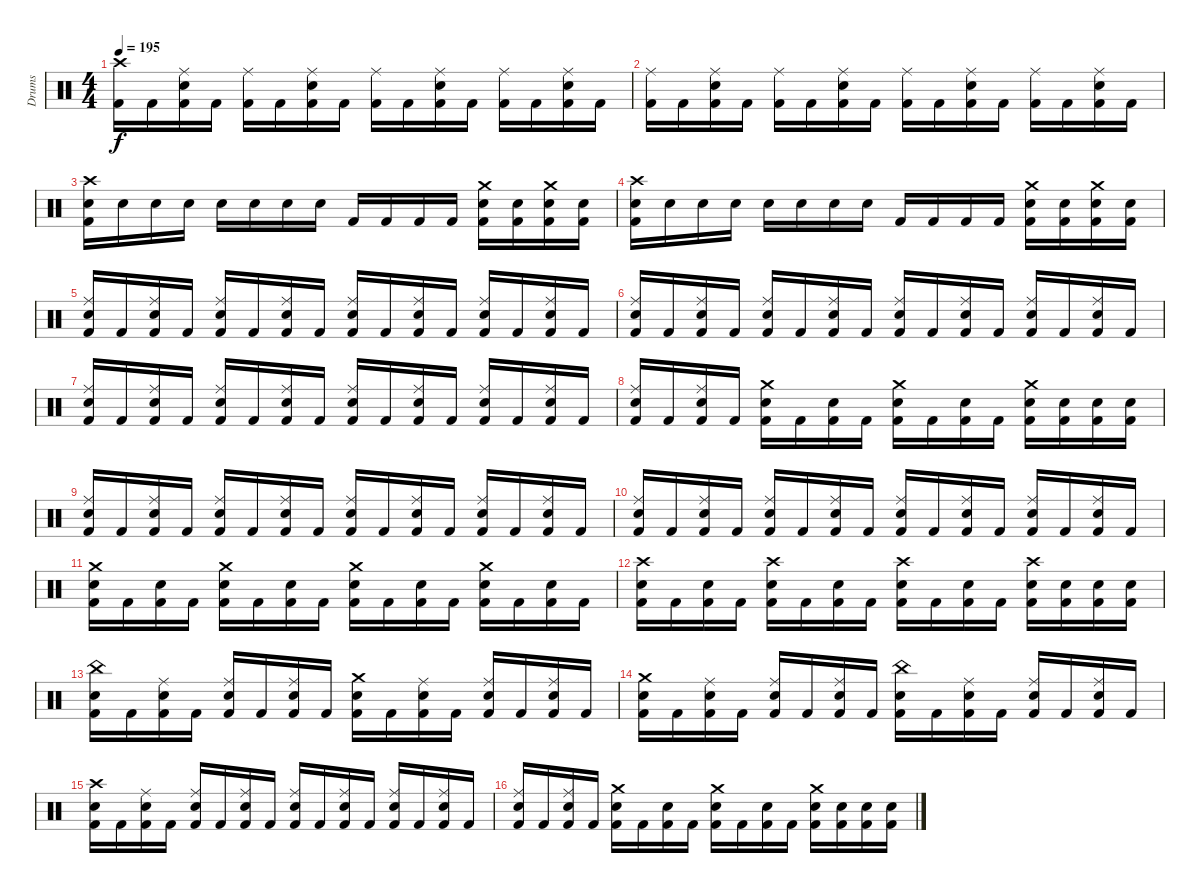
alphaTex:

\track ("Drums" "Drums") {instrument percussion}
\staff {score}
\articulation defaults
\ts (4 4)
\tempo 195
\clef neutral
\ks c
("Crash high (hit)" "Kick (hit) 2").16{dy f} "Kick (hit) 2".16 ("Ride (middle)" "Kick (hit) 2" "Electric Snare (hit)").16 "Kick (hit) 2".16 ("Ride (middle)" "Kick (hit) 2").16 "Kick (hit) 2".16 ("Ride (middle)" "Kick (hit) 2" "Electric Snare (hit)").16 "Kick (hit) 2".16 ("Ride (middle)" "Kick (hit) 2").16 "Kick (hit) 2".16 ("Ride (middle)" "Kick (hit) 2" "Electric Snare (hit)").16 "Kick (hit) 2".16 ("Ride (middle)" "Kick (hit) 2").16 "Kick (hit) 2".16 ("Ride (middle)" "Kick (hit) 2" "Electric Snare (hit)").16 "Kick (hit) 2".16 |
("Ride (middle)" "Kick (hit) 2").16 "Kick (hit) 2".16 ("Ride (middle)" "Kick (hit) 2" "Electric Snare (hit)").16 "Kick (hit) 2".16 ("Ride (middle)" "Kick (hit) 2").16 "Kick (hit) 2".16 ("Ride (middle)" "Kick (hit) 2" "Electric Snare (hit)").16 "Kick (hit) 2".16 ("Ride (middle)" "Kick (hit) 2").16 "Kick (hit) 2".16 ("Ride (middle)" "Kick (hit) 2" "Electric Snare (hit)").16 "Kick (hit) 2".16 ("Ride (middle)" "Kick (hit) 2").16 "Kick (hit) 2".16 ("Ride (middle)" "Kick (hit) 2" "Electric Snare (hit)").16 "Kick (hit) 2".16 |
("Crash high (hit)" "Electric Snare (hit)" "Kick (hit) 2").16 "Electric Snare (hit)".16 "Electric Snare (hit)".16 "Electric Snare (hit)".16 "Electric Snare (hit)".16 "Electric Snare (hit)".16 "Electric Snare (hit)".16 "Electric Snare (hit)".16 "Kick (hit) 2".16 "Kick (hit) 2".16 "Kick (hit) 2".16 "Kick (hit) 2".16 ("Electric Snare (hit)" "Crash medium (hit)" "Kick (hit) 2").16 ("Electric Snare (hit)" "Kick (hit) 2").16 ("Electric Snare (hit)" "Crash medium (hit)" "Kick (hit) 2").16 ("Electric Snare (hit)" "Kick (hit) 2").16 |
("Crash high (hit)" "Electric Snare (hit)" "Kick (hit) 2").16 "Electric Snare (hit)".16 "Electric Snare (hit)".16 "Electric Snare (hit)".16 "Electric Snare (hit)".16 "Electric Snare (hit)".16 "Electric Snare (hit)".16 "Electric Snare (hit)".16 "Kick (hit) 2".16 "Kick (hit) 2".16 "Kick (hit) 2".16 "Kick (hit) 2".16 ("Electric Snare (hit)" "Crash medium (hit)" "Kick (hit) 2").16 ("Electric Snare (hit)" "Kick (hit) 2").16 ("Electric Snare (hit)" "Crash medium (hit)" "Kick (hit) 2").16 ("Electric Snare (hit)" "Kick (hit) 2").16 |
("Ride (middle)" "Kick (hit) 2" "Electric Snare (hit)").16 "Kick (hit) 2".16 ("Ride (middle)" "Kick (hit) 2" "Electric Snare (hit)").16 "Kick (hit) 2".16 ("Ride (middle)" "Kick (hit) 2" "Electric Snare (hit)").16 "Kick (hit) 2".16 ("Ride (middle)" "Kick (hit) 2" "Electric Snare (hit)").16 "Kick (hit) 2".16 ("Ride (middle)" "Kick (hit) 2" "Electric Snare (hit)").16 "Kick (hit) 2".16 ("Ride (middle)" "Kick (hit) 2" "Electric Snare (hit)").16 "Kick (hit) 2".16 ("Ride (middle)" "Kick (hit) 2" "Electric Snare (hit)").16 "Kick (hit) 2".16 ("Ride (middle)" "Kick (hit) 2" "Electric Snare (hit)").16 "Kick (hit) 2".16 |
("Ride (middle)" "Kick (hit) 2" "Electric Snare (hit)").16 "Kick (hit) 2".16 ("Ride (middle)" "Kick (hit) 2" "Electric Snare (hit)").16 "Kick (hit) 2".16 ("Ride (middle)" "Kick (hit) 2" "Electric Snare (hit)").16 "Kick (hit) 2".16 ("Ride (middle)" "Kick (hit) 2" "Electric Snare (hit)").16 "Kick (hit) 2".16 ("Ride (middle)" "Kick (hit) 2" "Electric Snare (hit)").16 "Kick (hit) 2".16 ("Ride (middle)" "Kick (hit) 2" "Electric Snare (hit)").16 "Kick (hit) 2".16 ("Ride (middle)" "Kick (hit) 2" "Electric Snare (hit)").16 "Kick (hit) 2".16 ("Ride (middle)" "Kick (hit) 2" "Electric Snare (hit)").16 "Kick (hit) 2".16 |
("Ride (middle)" "Kick (hit) 2" "Electric Snare (hit)").16 "Kick (hit) 2".16 ("Ride (middle)" "Kick (hit) 2" "Electric Snare (hit)").16 "Kick (hit) 2".16 ("Ride (middle)" "Kick (hit) 2" "Electric Snare (hit)").16 "Kick (hit) 2".16 ("Ride (middle)" "Kick (hit) 2" "Electric Snare (hit)").16 "Kick (hit) 2".16 ("Ride (middle)" "Kick (hit) 2" "Electric Snare (hit)").16 "Kick (hit) 2".16 ("Ride (middle)" "Kick (hit) 2" "Electric Snare (hit)").16 "Kick (hit) 2".16 ("Ride (middle)" "Kick (hit) 2" "Electric Snare (hit)").16 "Kick (hit) 2".16 ("Ride (middle)" "Kick (hit) 2" "Electric Snare (hit)").16 "Kick (hit) 2".16 |
("Ride (middle)" "Kick (hit) 2" "Electric Snare (hit)").16 "Kick (hit) 2".16 ("Ride (middle)" "Kick (hit) 2" "Electric Snare (hit)").16 "Kick (hit) 2".16 ("Crash medium (hit)" "Kick (hit) 2" "Electric Snare (hit)").16 "Kick (hit) 2".16 ("Kick (hit) 2" "Electric Snare (hit)").16 "Kick (hit) 2".16 ("Crash medium (hit)" "Kick (hit) 2" "Electric Snare (hit)").16 "Kick (hit) 2".16 ("Kick (hit) 2" "Electric Snare (hit)").16 "Kick (hit) 2".16 ("Crash medium (hit)" "Kick (hit) 2" "Electric Snare (hit)").16 ("Kick (hit) 2" "Electric Snare (hit)").16 ("Kick (hit) 2" "Electric Snare (hit)").16 ("Kick (hit) 2" "Electric Snare (hit)").16 |
("Ride (middle)" "Kick (hit) 2" "Electric Snare (hit)").16 "Kick (hit) 2".16 ("Ride (middle)" "Kick (hit) 2" "Electric Snare (hit)").16 "Kick (hit) 2".16 ("Ride (middle)" "Kick (hit) 2" "Electric Snare (hit)").16 "Kick (hit) 2".16 ("Ride (middle)" "Kick (hit) 2" "Electric Snare (hit)").16 "Kick (hit) 2".16 ("Ride (middle)" "Kick (hit) 2" "Electric Snare (hit)").16 "Kick (hit) 2".16 ("Ride (middle)" "Kick (hit) 2" "Electric Snare (hit)").16 "Kick (hit) 2".16 ("Ride (middle)" "Kick (hit) 2" "Electric Snare (hit)").16 "Kick (hit) 2".16 ("Ride (middle)" "Kick (hit) 2" "Electric Snare (hit)").16 "Kick (hit) 2".16 |
("Ride (middle)" "Kick (hit) 2" "Electric Snare (hit)").16 "Kick (hit) 2".16 ("Ride (middle)" "Kick (hit) 2" "Electric Snare (hit)").16 "Kick (hit) 2".16 ("Ride (middle)" "Kick (hit) 2" "Electric Snare (hit)").16 "Kick (hit) 2".16 ("Ride (middle)" "Kick (hit) 2" "Electric Snare (hit)").16 "Kick (hit) 2".16 ("Ride (middle)" "Kick (hit) 2" "Electric Snare (hit)").16 "Kick (hit) 2".16 ("Ride (middle)" "Kick (hit) 2" "Electric Snare (hit)").16 "Kick (hit) 2".16 ("Ride (middle)" "Kick (hit) 2" "Electric Snare (hit)").16 "Kick (hit) 2".16 ("Ride (middle)" "Kick (hit) 2" "Electric Snare (hit)").16 "Kick (hit) 2".16 |
("Crash medium (hit)" "Kick (hit) 2" "Electric Snare (hit)").16 "Kick (hit) 2".16 ("Kick (hit) 2" "Electric Snare (hit)").16 "Kick (hit) 2".16 ("Crash medium (hit)" "Kick (hit) 2" "Electric Snare (hit)").16 "Kick (hit) 2".16 ("Kick (hit) 2" "Electric Snare (hit)").16 "Kick (hit) 2".16 ("Crash medium (hit)" "Kick (hit) 2" "Electric Snare (hit)").16 "Kick (hit) 2".16 ("Kick (hit) 2" "Electric Snare (hit)").16 "Kick (hit) 2".16 ("Crash medium (hit)" "Kick (hit) 2" "Electric Snare (hit)").16 "Kick (hit) 2".16 ("Kick (hit) 2" "Electric Snare (hit)").16 "Kick (hit) 2".16 |
("Crash high (hit)" "Kick (hit) 2" "Electric Snare (hit)").16 "Kick (hit) 2".16 ("Kick (hit) 2" "Electric Snare (hit)").16 "Kick (hit) 2".16 ("Crash high (hit)" "Kick (hit) 2" "Electric Snare (hit)").16 "Kick (hit) 2".16 ("Kick (hit) 2" "Electric Snare (hit)").16 "Kick (hit) 2".16 ("Crash high (hit)" "Kick (hit) 2" "Electric Snare (hit)").16 "Kick (hit) 2".16 ("Kick (hit) 2" "Electric Snare (hit)").16 "Kick (hit) 2".16 ("Crash high (hit)" "Kick (hit) 2" "Electric Snare (hit)").16 ("Kick (hit) 2" "Electric Snare (hit)").16 ("Kick (hit) 2" "Electric Snare (hit)").16 ("Kick (hit) 2" "Electric Snare (hit)").16 |
("China (hit)" "Kick (hit) 2" "Electric Snare (hit)").16 "Kick (hit) 2".16 ("Ride (middle)" "Kick (hit) 2" "Electric Snare (hit)").16 "Kick (hit) 2".16 ("Ride (middle)" "Kick (hit) 2" "Electric Snare (hit)").16 "Kick (hit) 2".16 ("Ride (middle)" "Kick (hit) 2" "Electric Snare (hit)").16 "Kick (hit) 2".16 ("Crash medium (hit)" "Kick (hit) 2" "Electric Snare (hit)").16 "Kick (hit) 2".16 ("Ride (middle)" "Kick (hit) 2" "Electric Snare (hit)").16 "Kick (hit) 2".16 ("Ride (middle)" "Kick (hit) 2" "Electric Snare (hit)").16 "Kick (hit) 2".16 ("Ride (middle)" "Kick (hit) 2" "Electric Snare (hit)").16 "Kick (hit) 2".16 |
("Crash medium (hit)" "Kick (hit) 2" "Electric Snare (hit)").16 "Kick (hit) 2".16 ("Ride (middle)" "Kick (hit) 2" "Electric Snare (hit)").16 "Kick (hit) 2".16 ("Ride (middle)" "Kick (hit) 2" "Electric Snare (hit)").16 "Kick (hit) 2".16 ("Ride (middle)" "Kick (hit) 2" "Electric Snare (hit)").16 "Kick (hit) 2".16 ("China (hit)" "Kick (hit) 2" "Electric Snare (hit)").16 "Kick (hit) 2".16 ("Ride (middle)" "Kick (hit) 2" "Electric Snare (hit)").16 "Kick (hit) 2".16 ("Ride (middle)" "Kick (hit) 2" "Electric Snare (hit)").16 "Kick (hit) 2".16 ("Ride (middle)" "Kick (hit) 2" "Electric Snare (hit)").16 "Kick (hit) 2".16 |
("Crash high (hit)" "Kick (hit) 2" "Electric Snare (hit)").16 "Kick (hit) 2".16 ("Ride (middle)" "Kick (hit) 2" "Electric Snare (hit)").16 "Kick (hit) 2".16 ("Ride (middle)" "Kick (hit) 2" "Electric Snare (hit)").16 "Kick (hit) 2".16 ("Ride (middle)" "Kick (hit) 2" "Electric Snare (hit)").16 "Kick (hit) 2".16 ("Ride (middle)" "Kick (hit) 2" "Electric Snare (hit)").16 "Kick (hit) 2".16 ("Ride (middle)" "Kick (hit) 2" "Electric Snare (hit)").16 "Kick (hit) 2".16 ("Ride (middle)" "Kick (hit) 2" "Electric Snare (hit)").16 "Kick (hit) 2".16 ("Ride (middle)" "Kick (hit) 2" "Electric Snare (hit)").16 "Kick (hit) 2".16 |
("Ride (middle)" "Kick (hit) 2" "Electric Snare (hit)").16 "Kick (hit) 2".16 ("Ride (middle)" "Kick (hit) 2" "Electric Snare (hit)").16 "Kick (hit) 2".16 ("Crash medium (hit)" "Kick (hit) 2" "Electric Snare (hit)").16 "Kick (hit) 2".16 ("Kick (hit) 2" "Electric Snare (hit)").16 "Kick (hit) 2".16 ("Crash medium (hit)" "Kick (hit) 2" "Electric Snare (hit)").16 "Kick (hit) 2".16 ("Kick (hit) 2" "Electric Snare (hit)").16 "Kick (hit) 2".16 ("Crash medium (hit)" "Kick (hit) 2" "Electric Snare (hit)").16 ("Kick (hit) 2" "Electric Snare (hit)").16 ("Kick (hit) 2" "Electric Snare (hit)").16 ("Kick (hit) 2" "Electric Snare (hit)").16
